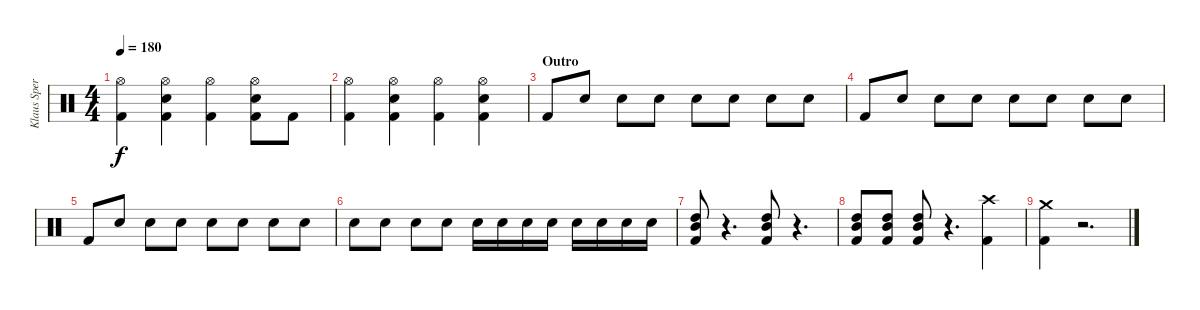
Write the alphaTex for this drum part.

\track ("Klaus Sperling Drums" "Klaus Sper") {instrument percussion}
\staff {score}
\articulation defaults
\ts (4 4)
\tempo 180
\clef neutral
\ks c
("Hi-Hat (open)" "Kick (hit) 2").4{dy f} ("Hi-Hat (open)" "Electric Snare (hit)" "Kick (hit) 2").4 ("Hi-Hat (open)" "Kick (hit) 2").4 ("Hi-Hat (open)" "Electric Snare (hit)" "Kick (hit) 2").8 "Kick (hit) 2".8 |
("Hi-Hat (open)" "Kick (hit) 2").4 ("Hi-Hat (open)" "Electric Snare (hit)" "Kick (hit) 2").4 ("Hi-Hat (open)" "Kick (hit) 2").4 ("Hi-Hat (open)" "Electric Snare (hit)" "Kick (hit) 2").4 |
\section ("" "Outro")
"Kick (hit) 2".8 "Electric Snare (hit)".8 "Electric Snare (hit)".8 "Electric Snare (hit)".8 "Electric Snare (hit)".8 "Electric Snare (hit)".8 "Electric Snare (hit)".8 "Electric Snare (hit)".8 |
"Kick (hit) 2".8 "Electric Snare (hit)".8 "Electric Snare (hit)".8 "Electric Snare (hit)".8 "Electric Snare (hit)".8 "Electric Snare (hit)".8 "Electric Snare (hit)".8 "Electric Snare (hit)".8 |
"Kick (hit) 2".8 "Electric Snare (hit)".8 "Electric Snare (hit)".8 "Electric Snare (hit)".8 "Electric Snare (hit)".8 "Electric Snare (hit)".8 "Electric Snare (hit)".8 "Electric Snare (hit)".8 |
"Electric Snare (hit)".8 "Electric Snare (hit)".8 "Electric Snare (hit)".8 "Electric Snare (hit)".8 "Electric Snare (hit)".16 "Electric Snare (hit)".16 "Electric Snare (hit)".16 "Electric Snare (hit)".16 "Electric Snare (hit)".16 "Electric Snare (hit)".16 "Electric Snare (hit)".16 "Electric Snare (hit)".16 |
("High Tom (hit)" "Mid Tom (hit)" "Kick (hit) 2").8 r.4{d} ("High Tom (hit)" "Mid Tom (hit)" "Kick (hit) 2").8 r.4{d} |
("High Tom (hit)" "Mid Tom (hit)" "Kick (hit) 2").8 ("High Tom (hit)" "Mid Tom (hit)" "Kick (hit) 2").8 ("High Tom (hit)" "Mid Tom (hit)" "Kick (hit) 2").8 r.4{d} ("Crash high (hit)" "Kick (hit) 2").4 |
("Crash medium (hit)" "Kick (hit) 2").4 r.2{d}
